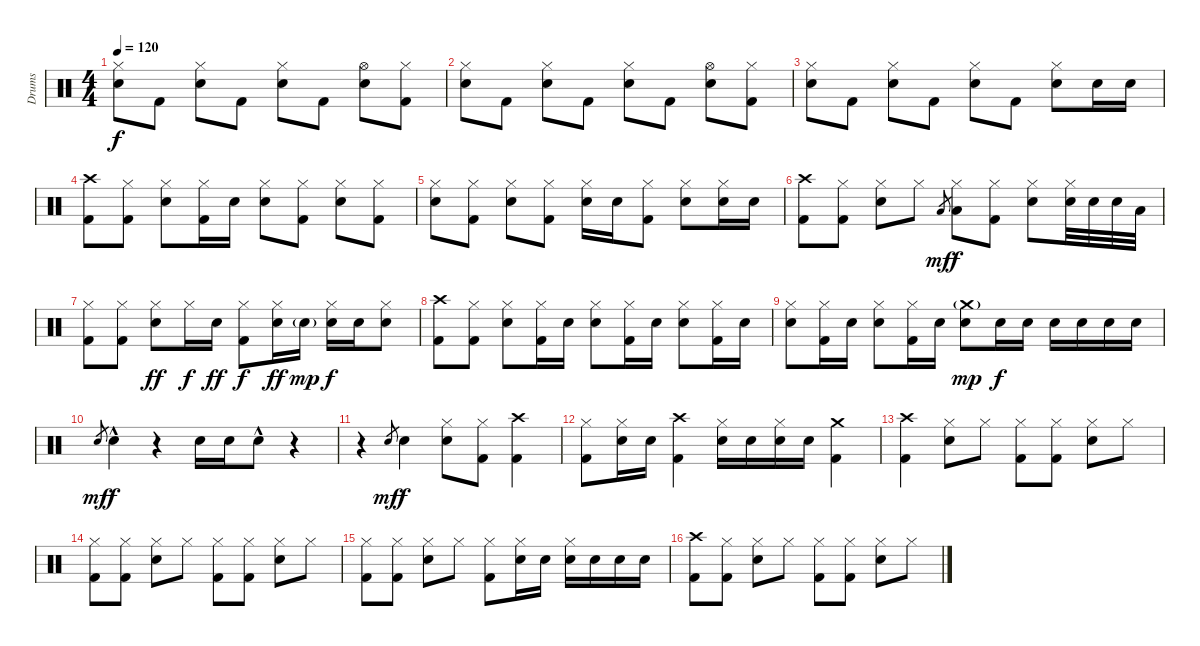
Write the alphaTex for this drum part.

\track ("Drums" "Drums") {instrument percussion}
\staff {score}
\articulation defaults
\ts (4 4)
\tempo 120
\clef neutral
\ks c
("Hi-Hat (closed)" "Electric Snare (hit)").8{dy f} "Kick (hit) 2".8 ("Hi-Hat (closed)" "Electric Snare (hit)").8 "Kick (hit) 2".8 ("Hi-Hat (closed)" "Electric Snare (hit)").8 "Kick (hit) 2".8 ("Hi-Hat (open)" "Electric Snare (hit)").8 ("Hi-Hat (closed)" "Kick (hit) 2").8 |
("Hi-Hat (closed)" "Electric Snare (hit)").8 "Kick (hit) 2".8 ("Hi-Hat (closed)" "Electric Snare (hit)").8 "Kick (hit) 2".8 ("Hi-Hat (closed)" "Electric Snare (hit)").8 "Kick (hit) 2".8 ("Hi-Hat (open)" "Electric Snare (hit)").8 ("Hi-Hat (closed)" "Kick (hit) 2").8 |
("Hi-Hat (closed)" "Electric Snare (hit)").8 "Kick (hit) 2".8 ("Hi-Hat (closed)" "Electric Snare (hit)").8 "Kick (hit) 2".8 ("Hi-Hat (closed)" "Electric Snare (hit)").8 "Kick (hit) 2".8 ("Hi-Hat (closed)" "Electric Snare (hit)").8 "Electric Snare (hit)".16 "Electric Snare (hit)".16 |
("Crash high (hit)" "Kick (hit) 2").8 ("Hi-Hat (closed)" "Kick (hit) 2").8 ("Hi-Hat (closed)" "Electric Snare (hit)").8 ("Hi-Hat (closed)" "Kick (hit) 2").16 "Electric Snare (hit)".16 ("Hi-Hat (closed)" "Electric Snare (hit)").8 ("Hi-Hat (closed)" "Kick (hit) 2").8 ("Hi-Hat (closed)" "Electric Snare (hit)").8 ("Hi-Hat (closed)" "Kick (hit) 2").8 |
("Hi-Hat (closed)" "Electric Snare (hit)").8 ("Hi-Hat (closed)" "Kick (hit) 2").8 ("Hi-Hat (closed)" "Electric Snare (hit)").8 ("Hi-Hat (closed)" "Kick (hit) 2").8 ("Hi-Hat (closed)" "Electric Snare (hit)").16 "Electric Snare (hit)".16 ("Hi-Hat (closed)" "Kick (hit) 2").8 ("Hi-Hat (closed)" "Electric Snare (hit)").8 ("Hi-Hat (closed)" "Electric Snare (hit)").16 "Electric Snare (hit)".16 |
("Crash high (hit)" "Kick (hit) 2").8 ("Hi-Hat (closed)" "Kick (hit) 2").8 ("Hi-Hat (closed)" "Electric Snare (hit)").8 "Hi-Hat (closed)".8 "Low Tom (hit)".8{gr dy mf} ("Hi-Hat (closed)" "Low Tom (hit)").8{dy f} ("Hi-Hat (closed)" "Kick (hit) 2").8 ("Hi-Hat (closed)" "Electric Snare (hit)").8 ("Hi-Hat (closed)" "Electric Snare (hit)").32 "Electric Snare (hit)".32 "Electric Snare (hit)".32 "Low Tom (hit)".32 |
("Hi-Hat (closed)" "Kick (hit) 2").8 ("Hi-Hat (closed)" "Kick (hit) 2").8 ("Hi-Hat (closed)" "Electric Snare (hit)").8{dy ff} "Hi-Hat (closed)".16{dy f} "Electric Snare (hit)".16{dy ff} ("Hi-Hat (closed)" "Kick (hit) 2").8{dy f} ("Hi-Hat (closed)" "Electric Snare (hit)").16{dy ff} "Electric Snare (hit)"{g}.16{dy mp} ("Hi-Hat (closed)" "Electric Snare (hit)").16{dy f} "Electric Snare (hit)".16 ("Hi-Hat (closed)" "Electric Snare (hit)").8 |
("Crash high (hit)" "Kick (hit) 2").8 ("Hi-Hat (closed)" "Kick (hit) 2").8 ("Hi-Hat (closed)" "Electric Snare (hit)").8 ("Hi-Hat (closed)" "Kick (hit) 2").16 "Electric Snare (hit)".16 ("Hi-Hat (closed)" "Electric Snare (hit)").8 ("Hi-Hat (closed)" "Kick (hit) 2").16 "Electric Snare (hit)".16 ("Hi-Hat (closed)" "Electric Snare (hit)").8 ("Hi-Hat (closed)" "Kick (hit) 2").16 "Electric Snare (hit)".16 |
("Hi-Hat (closed)" "Electric Snare (hit)").8 ("Hi-Hat (closed)" "Kick (hit) 2").16 "Electric Snare (hit)".16 ("Hi-Hat (closed)" "Electric Snare (hit)").8 ("Hi-Hat (closed)" "Kick (hit) 2").16 "Electric Snare (hit)".16 ("Crash medium (hit)"{g} "Electric Snare (hit)").8{dy mp} "Electric Snare (hit)".16{dy f} "Electric Snare (hit)".16 "Electric Snare (hit)".16 "Electric Snare (hit)".16 "Electric Snare (hit)".16 "Electric Snare (hit)".16 |
"Electric Snare (hit)".8{gr dy mf} "Electric Snare (hit)"{hac}.4{dy f} r.4 "Electric Snare (hit)".16 "Electric Snare (hit)".16 "Electric Snare (hit)"{hac}.8 r.4 |
r.4 "Electric Snare (hit)".8{gr dy mf} "Electric Snare (hit)".4{dy f} ("Hi-Hat (closed)" "Electric Snare (hit)").8 ("Hi-Hat (closed)" "Kick (hit) 2").8 ("Crash high (hit)" "Kick (hit) 2").4 |
("Hi-Hat (closed)" "Kick (hit) 2").8 ("Hi-Hat (closed)" "Electric Snare (hit)").16 "Electric Snare (hit)".16 ("Crash high (hit)" "Kick (hit) 2").4 ("Hi-Hat (closed)" "Electric Snare (hit)").16 "Electric Snare (hit)".16 ("Hi-Hat (closed)" "Electric Snare (hit)").16 "Electric Snare (hit)".16 ("Crash medium (hit)" "Kick (hit) 2").4 |
("Crash high (hit)" "Kick (hit) 2").4 ("Hi-Hat (closed)" "Electric Snare (hit)").8 "Hi-Hat (closed)".8 ("Hi-Hat (closed)" "Kick (hit) 2").8 ("Hi-Hat (closed)" "Kick (hit) 2").8 ("Hi-Hat (closed)" "Electric Snare (hit)").8 "Hi-Hat (closed)".8 |
("Hi-Hat (closed)" "Kick (hit) 2").8 ("Hi-Hat (closed)" "Kick (hit) 2").8 ("Hi-Hat (closed)" "Electric Snare (hit)").8 "Hi-Hat (closed)".8 ("Hi-Hat (closed)" "Kick (hit) 2").8 ("Hi-Hat (closed)" "Kick (hit) 2").8 ("Hi-Hat (closed)" "Electric Snare (hit)").8 "Hi-Hat (closed)".8 |
("Hi-Hat (closed)" "Kick (hit) 2").8 ("Hi-Hat (closed)" "Kick (hit) 2").8 ("Hi-Hat (closed)" "Electric Snare (hit)").8 "Hi-Hat (closed)".8 ("Hi-Hat (closed)" "Kick (hit) 2").8 ("Hi-Hat (closed)" "Electric Snare (hit)").16 "Electric Snare (hit)".16 ("Hi-Hat (closed)" "Electric Snare (hit)").16 "Electric Snare (hit)".16 "Electric Snare (hit)".16 "Electric Snare (hit)".16 |
("Crash high (hit)" "Kick (hit) 2").8 ("Hi-Hat (closed)" "Kick (hit) 2").8 ("Hi-Hat (closed)" "Electric Snare (hit)").8 "Hi-Hat (closed)".8 ("Hi-Hat (closed)" "Kick (hit) 2").8 ("Hi-Hat (closed)" "Kick (hit) 2").8 ("Hi-Hat (closed)" "Electric Snare (hit)").8 "Hi-Hat (closed)".8
